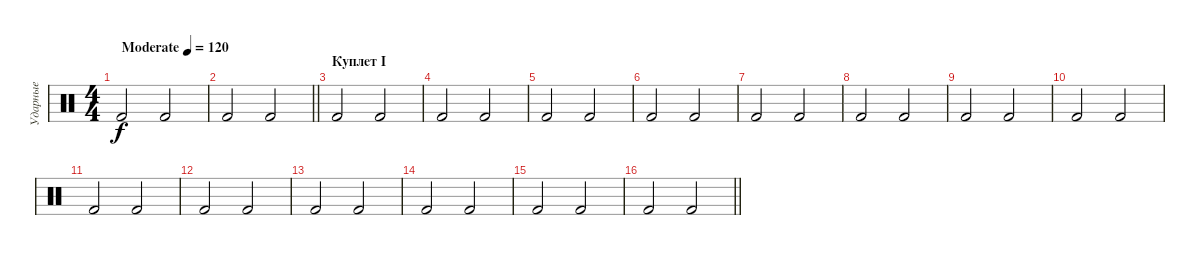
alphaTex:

\track ("Ударные" "Ударные") {instrument percussion}
\staff {score}
\articulation defaults
\ts (4 4)
\tempo (120 "Moderate")
\clef neutral
\ks c "Kick (hit) 2".2{dy f} "Kick (hit) 2".2
|
\barLineRight lightlight "Kick (hit) 2".2 "Kick (hit) 2".2
|
\section ("" "Куплет I")
"Kick (hit) 2".2 "Kick (hit) 2".2 |
"Kick (hit) 2".2 "Kick (hit) 2".2 |
"Kick (hit) 2".2 "Kick (hit) 2".2 |
"Kick (hit) 2".2 "Kick (hit) 2".2 |
"Kick (hit) 2".2 "Kick (hit) 2".2 |
"Kick (hit) 2".2 "Kick (hit) 2".2 |
"Kick (hit) 2".2 "Kick (hit) 2".2 |
"Kick (hit) 2".2 "Kick (hit) 2".2 |
"Kick (hit) 2".2 "Kick (hit) 2".2 |
"Kick (hit) 2".2 "Kick (hit) 2".2 |
"Kick (hit) 2".2 "Kick (hit) 2".2 |
"Kick (hit) 2".2 "Kick (hit) 2".2 |
"Kick (hit) 2".2 "Kick (hit) 2".2 |
\barLineRight lightlight "Kick (hit) 2".2 "Kick (hit) 2".2
